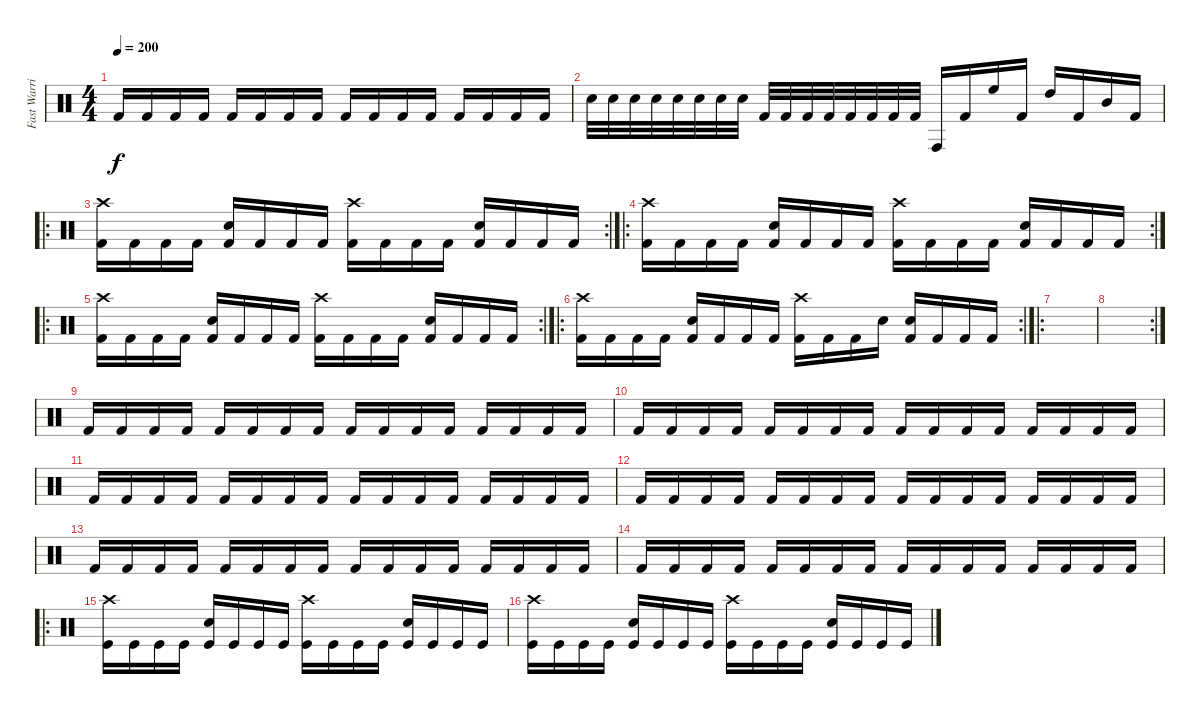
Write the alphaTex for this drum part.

\track ("Fast Warrior" "Fast Warri") {instrument percussion}
\staff {score}
\articulation defaults
\ts (4 4)
\tempo 200
\clef neutral
\ks c "Kick (hit) 2".16{dy f} "Kick (hit) 2".16 "Kick (hit) 2".16 "Kick (hit) 2".16 "Kick (hit) 2".16 "Kick (hit) 2".16 "Kick (hit) 2".16 "Kick (hit) 2".16 "Kick (hit) 2".16 "Kick (hit) 2".16 "Kick (hit) 2".16 "Kick (hit) 2".16 "Kick (hit) 2".16 "Kick (hit) 2".16 "Kick (hit) 2".16 "Kick (hit) 2".16
|
"Electric Snare (hit)".32 "Electric Snare (hit)".32 "Electric Snare (hit)".32 "Electric Snare (hit)".32 "Electric Snare (hit)".32 "Electric Snare (hit)".32 "Electric Snare (hit)".32 "Electric Snare (hit)".32 "Kick (hit) 2".32 "Kick (hit) 2".32 "Kick (hit) 2".32 "Kick (hit) 2".32 "Kick (hit) 2".32 "Kick (hit) 2".32 "Kick (hit) 2".32 "Kick (hit) 2".32 "Conga high (hit)".16 "Kick (hit) 2".16 "High Floor Tom (hit)".16 "Kick (hit) 2".16 "High Tom (hit)".16 "Kick (hit) 2".16 "Mid Tom (hit)".16 "Kick (hit) 2".16 |
\ro
\rc 2
("Kick (hit) 2" "Crash high (hit)").16 "Kick (hit) 2".16 "Kick (hit) 2".16 "Kick (hit) 2".16 ("Kick (hit) 2" "Electric Snare (hit)").16 "Kick (hit) 2".16 "Kick (hit) 2".16 "Kick (hit) 2".16 ("Kick (hit) 2" "Crash high (hit)").16 "Kick (hit) 2".16 "Kick (hit) 2".16 "Kick (hit) 2".16 ("Kick (hit) 2" "Electric Snare (hit)").16 "Kick (hit) 2".16 "Kick (hit) 2".16 "Kick (hit) 2".16 |
\ro
\rc 2
("Kick (hit) 2" "Crash high (hit)").16 "Kick (hit) 2".16 "Kick (hit) 2".16 "Kick (hit) 2".16 ("Kick (hit) 2" "Electric Snare (hit)").16 "Kick (hit) 2".16 "Kick (hit) 2".16 "Kick (hit) 2".16 ("Kick (hit) 2" "Crash high (hit)").16 "Kick (hit) 2".16 "Kick (hit) 2".16 "Kick (hit) 2".16 ("Kick (hit) 2" "Electric Snare (hit)").16 "Kick (hit) 2".16 "Kick (hit) 2".16 "Kick (hit) 2".16 |
\ro
\rc 2
("Kick (hit) 2" "Crash high (hit)").16 "Kick (hit) 2".16 "Kick (hit) 2".16 "Kick (hit) 2".16 ("Kick (hit) 2" "Electric Snare (hit)").16 "Kick (hit) 2".16 "Kick (hit) 2".16 "Kick (hit) 2".16 ("Kick (hit) 2" "Crash high (hit)").16 "Kick (hit) 2".16 "Kick (hit) 2".16 "Kick (hit) 2".16 ("Kick (hit) 2" "Electric Snare (hit)").16 "Kick (hit) 2".16 "Kick (hit) 2".16 "Kick (hit) 2".16 |
\ro
\rc 2
("Kick (hit) 2" "Crash high (hit)").16 "Kick (hit) 2".16 "Kick (hit) 2".16 "Kick (hit) 2".16 ("Kick (hit) 2" "Electric Snare (hit)").16 "Kick (hit) 2".16 "Kick (hit) 2".16 "Kick (hit) 2".16 ("Kick (hit) 2" "Crash high (hit)").16 "Kick (hit) 2".16 "Kick (hit) 2".16 "Snare (hit)".16 ("Kick (hit) 2" "Electric Snare (hit)").16 "Kick (hit) 2".16 "Kick (hit) 2".16 "Kick (hit) 2".16 |
\ro
|
\rc 2
|
"Kick (hit) 2".16 "Kick (hit) 2".16 "Kick (hit) 2".16 "Kick (hit) 2".16 "Kick (hit) 2".16 "Kick (hit) 2".16 "Kick (hit) 2".16 "Kick (hit) 2".16 "Kick (hit) 2".16 "Kick (hit) 2".16 "Kick (hit) 2".16 "Kick (hit) 2".16 "Kick (hit) 2".16 "Kick (hit) 2".16 "Kick (hit) 2".16 "Kick (hit) 2".16 |
"Kick (hit) 2".16 "Kick (hit) 2".16 "Kick (hit) 2".16 "Kick (hit) 2".16 "Kick (hit) 2".16 "Kick (hit) 2".16 "Kick (hit) 2".16 "Kick (hit) 2".16 "Kick (hit) 2".16 "Kick (hit) 2".16 "Kick (hit) 2".16 "Kick (hit) 2".16 "Kick (hit) 2".16 "Kick (hit) 2".16 "Kick (hit) 2".16 "Kick (hit) 2".16 |
"Kick (hit) 2".16 "Kick (hit) 2".16 "Kick (hit) 2".16 "Kick (hit) 2".16 "Kick (hit) 2".16 "Kick (hit) 2".16 "Kick (hit) 2".16 "Kick (hit) 2".16 "Kick (hit) 2".16 "Kick (hit) 2".16 "Kick (hit) 2".16 "Kick (hit) 2".16 "Kick (hit) 2".16 "Kick (hit) 2".16 "Kick (hit) 2".16 "Kick (hit) 2".16 |
"Kick (hit) 2".16 "Kick (hit) 2".16 "Kick (hit) 2".16 "Kick (hit) 2".16 "Kick (hit) 2".16 "Kick (hit) 2".16 "Kick (hit) 2".16 "Kick (hit) 2".16 "Kick (hit) 2".16 "Kick (hit) 2".16 "Kick (hit) 2".16 "Kick (hit) 2".16 "Kick (hit) 2".16 "Kick (hit) 2".16 "Kick (hit) 2".16 "Kick (hit) 2".16 |
"Kick (hit) 2".16 "Kick (hit) 2".16 "Kick (hit) 2".16 "Kick (hit) 2".16 "Kick (hit) 2".16 "Kick (hit) 2".16 "Kick (hit) 2".16 "Kick (hit) 2".16 "Kick (hit) 2".16 "Kick (hit) 2".16 "Kick (hit) 2".16 "Kick (hit) 2".16 "Kick (hit) 2".16 "Kick (hit) 2".16 "Kick (hit) 2".16 "Kick (hit) 2".16 |
"Kick (hit) 2".16 "Kick (hit) 2".16 "Kick (hit) 2".16 "Kick (hit) 2".16 "Kick (hit) 2".16 "Kick (hit) 2".16 "Kick (hit) 2".16 "Kick (hit) 2".16 "Kick (hit) 2".16 "Kick (hit) 2".16 "Kick (hit) 2".16 "Kick (hit) 2".16 "Kick (hit) 2".16 "Kick (hit) 2".16 "Kick (hit) 2".16 "Kick (hit) 2".16 |
\ro
("Kick (hit)" "Crash high (hit)").16 "Kick (hit)".16 "Kick (hit)".16 "Kick (hit)".16 ("Kick (hit)" "Electric Snare (hit)").16 "Kick (hit)".16 "Kick (hit)".16 "Kick (hit)".16 ("Kick (hit)" "Crash high (hit)").16 "Kick (hit)".16 "Kick (hit)".16 "Kick (hit)".16 ("Kick (hit)" "Electric Snare (hit)").16 "Kick (hit)".16 "Kick (hit)".16 "Kick (hit)".16 |
("Kick (hit)" "Crash high (hit)").16 "Kick (hit)".16 "Kick (hit)".16 "Kick (hit)".16 ("Kick (hit)" "Electric Snare (hit)").16 "Kick (hit)".16 "Kick (hit)".16 "Kick (hit)".16 ("Kick (hit)" "Crash high (hit)").16 "Kick (hit)".16 "Kick (hit)".16 "Kick (hit)".16 ("Kick (hit)" "Electric Snare (hit)").16 "Kick (hit)".16 "Kick (hit)".16 "Kick (hit)".16
